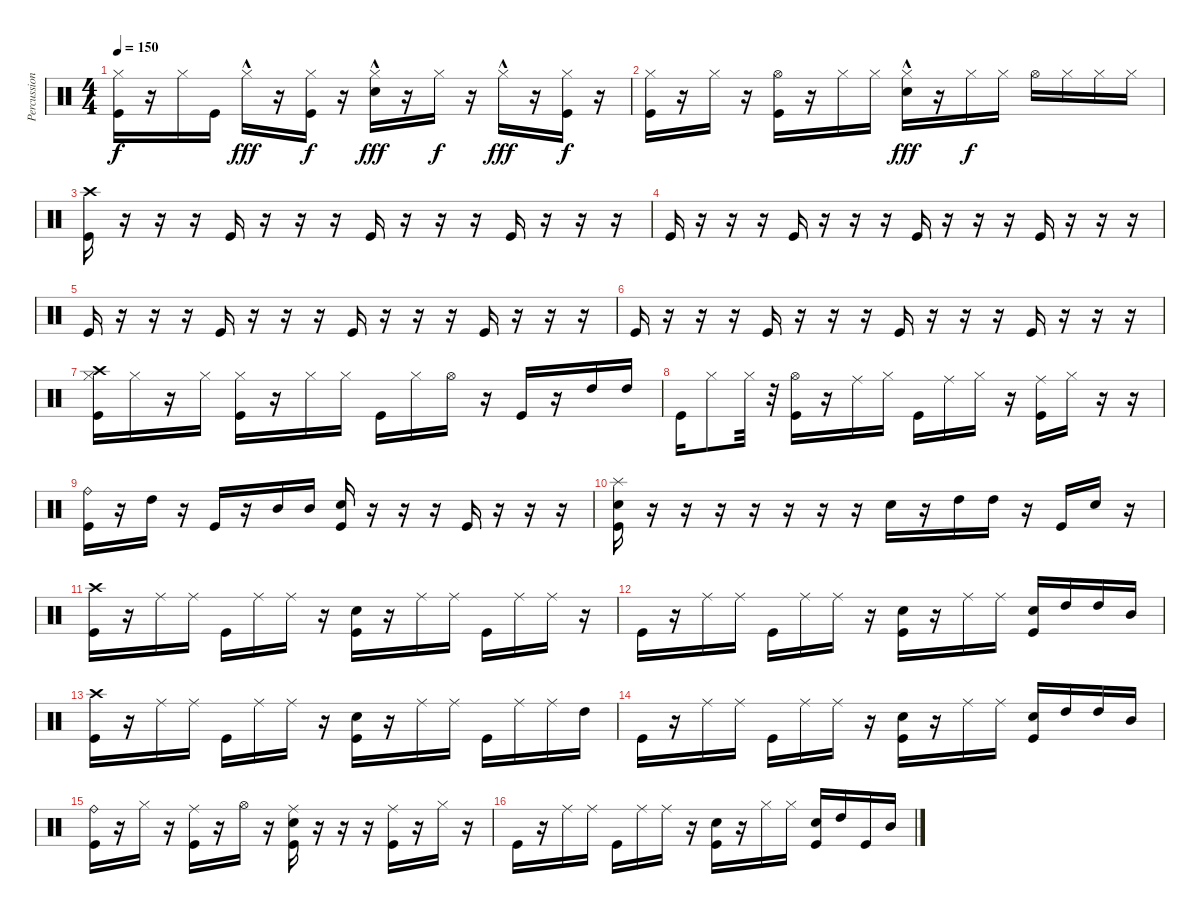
\track ("Percussion" "Percussion") {instrument percussion}
\staff {score}
\articulation defaults
\ts (4 4)
\tempo 150
\clef neutral
\ks c
("Hi-Hat (closed)" "Kick (hit)").16{dy f} r.16 "Hi-Hat (closed)".16 "Kick (hit)".16 "Hi-Hat (closed)"{hac}.16{dy fff} r.16 ("Hi-Hat (closed)" "Kick (hit)").16{dy f} r.16 ("Hi-Hat (closed)"{hac} "Electric Snare (hit)").16{dy fff} r.16 "Hi-Hat (closed)".16{dy f} r.16 "Hi-Hat (closed)"{hac}.16{dy fff} r.16 ("Hi-Hat (closed)" "Kick (hit)").16{dy f} r.16 |
("Hi-Hat (closed)" "Kick (hit)").16 r.16 "Hi-Hat (closed)".16 r.16 ("Hi-Hat (open)" "Kick (hit)").16 r.16 "Hi-Hat (closed)".16 "Hi-Hat (closed)".16 ("Hi-Hat (closed)"{hac} "Electric Snare (hit)").16{dy fff} r.16 "Hi-Hat (closed)".16{dy f} "Hi-Hat (closed)".16 "Hi-Hat (open)".16 "Hi-Hat (closed)".16 "Hi-Hat (closed)".16 "Hi-Hat (closed)".16 |
("Crash high (hit)" "Kick (hit)").16 r.16 r.16 r.16 "Kick (hit)".16 r.16 r.16 r.16 "Kick (hit)".16 r.16 r.16 r.16 "Kick (hit)".16 r.16 r.16 r.16 |
"Kick (hit)".16 r.16 r.16 r.16 "Kick (hit)".16 r.16 r.16 r.16 "Kick (hit)".16 r.16 r.16 r.16 "Kick (hit)".16 r.16 r.16 r.16 |
"Kick (hit)".16 r.16 r.16 r.16 "Kick (hit)".16 r.16 r.16 r.16 "Kick (hit)".16 r.16 r.16 r.16 "Kick (hit)".16 r.16 r.16 r.16 |
"Kick (hit)".16 r.16 r.16 r.16 "Kick (hit)".16 r.16 r.16 r.16 "Kick (hit)".16 r.16 r.16 r.16 "Kick (hit)".16 r.16 r.16 r.16 |
("Crash high (hit)" "Hi-Hat (closed)" "Kick (hit)").16 "Hi-Hat (closed)".16 r.16 "Hi-Hat (closed)".16 ("Hi-Hat (closed)" "Kick (hit)").16 r.16 "Hi-Hat (closed)".16 "Hi-Hat (closed)".16 "Kick (hit)".16 "Hi-Hat (closed)".16 "Hi-Hat (open)".16 r.16 "Kick (hit)".16 r.16 "High Tom (hit)".16 "High Tom (hit)".16 |
"Kick (hit)".16 "Hi-Hat (closed)".8 "Hi-Hat (closed)".32 r.32 ("Hi-Hat (open)" "Kick (hit)").16 r.16 "Ride (middle)".16 "Hi-Hat (closed)".16 "Kick (hit)".16 "Ride (middle)".16 "Hi-Hat (closed)".16 r.16 ("Ride (middle)" "Kick (hit)").16 "Hi-Hat (closed)".16 r.16 r.16 |
("Ride (bell)" "Kick (hit)").16 r.16 "High Tom (hit)".16 r.16 "Kick (hit)".16 r.16 "Mid Tom (hit)".16 "Mid Tom (hit)".16 ("Electric Snare (hit)" "Kick (hit)").16 r.16 r.16 r.16 "Kick (hit)".16 r.16 r.16 r.16 |
("Splash (hit)" "Electric Snare (hit)" "Kick (hit)").16 r.16 r.16 r.16 r.16 r.16 r.16 r.16 "Electric Snare (hit)".16 r.16 "High Tom (hit)".16 "High Tom (hit)".16 r.16 "Kick (hit)".16 "Electric Snare (hit)".16 r.16 |
("Crash high (hit)" "Kick (hit)").16 r.16 "Ride (middle)".16 "Ride (middle)".16 "Kick (hit)".16 "Ride (middle)".16 "Ride (middle)".16 r.16 ("Electric Snare (hit)" "Kick (hit)").16 r.16 "Ride (middle)".16 "Ride (middle)".16 "Kick (hit)".16 "Ride (middle)".16 "Ride (middle)".16 r.16 |
"Kick (hit)".16 r.16 "Ride (middle)".16 "Ride (middle)".16 "Kick (hit)".16 "Ride (middle)".16 "Ride (middle)".16 r.16 ("Electric Snare (hit)" "Kick (hit)").16 r.16 "Ride (middle)".16 "Ride (middle)".16 ("Electric Snare (hit)" "Kick (hit)").16 "High Tom (hit)".16 "High Tom (hit)".16 "Mid Tom (hit)".16 |
("Crash high (hit)" "Kick (hit)").16 r.16 "Ride (middle)".16 "Ride (middle)".16 "Kick (hit)".16 "Ride (middle)".16 "Ride (middle)".16 r.16 ("Electric Snare (hit)" "Kick (hit)").16 r.16 "Ride (middle)".16 "Ride (middle)".16 "Kick (hit)".16 "Ride (middle)".16 "Ride (middle)".16 "High Tom (hit)".16 |
"Kick (hit)".16 r.16 "Ride (middle)".16 "Ride (middle)".16 "Kick (hit)".16 "Ride (middle)".16 "Ride (middle)".16 r.16 ("Electric Snare (hit)" "Kick (hit)").16 r.16 "Ride (middle)".16 "Ride (middle)".16 ("Electric Snare (hit)" "Kick (hit)").16 "High Tom (hit)".16 "High Tom (hit)".16 "Mid Tom (hit)".16 |
("Ride (bell)" "Kick (hit)").16 r.16 "Hi-Hat (closed)".16 r.16 ("Ride (middle)" "Kick (hit)").16 r.16 "Hi-Hat (open)".16 r.16 ("Ride (middle)" "Electric Snare (hit)" "Kick (hit)").16 r.16 r.16 r.16 ("Ride (middle)" "Kick (hit)").16 r.16 "Hi-Hat (closed)".16 r.16 |
"Kick (hit)".16 r.16 "Ride (middle)".16 "Ride (middle)".16 "Kick (hit)".16 "Ride (middle)".16 "Ride (middle)".16 r.16 ("Electric Snare (hit)" "Kick (hit)").16 r.16 "Hi-Hat (closed)".16 "Hi-Hat (closed)".16 ("Electric Snare (hit)" "Kick (hit)").16 "High Tom (hit)".16 "Kick (hit)".16 "Mid Tom (hit)".16
